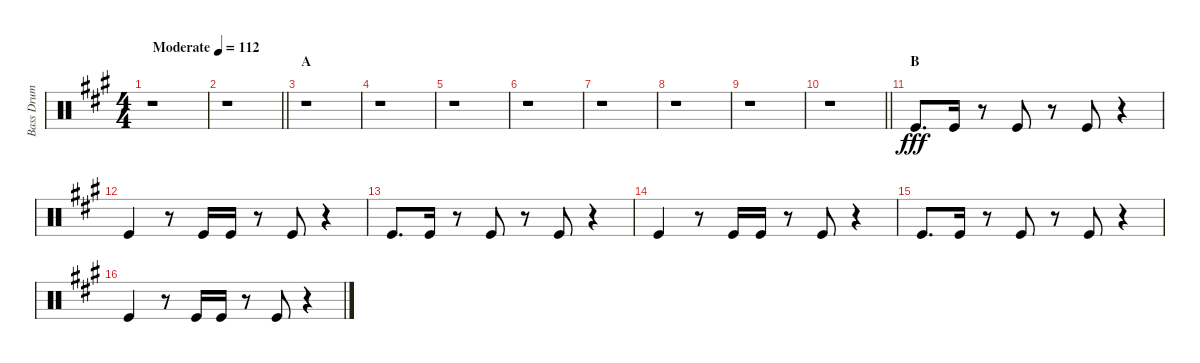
\track ("Bass Drum" "Bass Drum") {instrument percussion}
\staff {score}
\articulation defaults
\ts (4 4)
\tempo (112 "Moderate")
\clef neutral
\ks a
r.1{dy fff} |
\barLineRight lightlight
r.1 |
\section ("" "A")
r.1 |
r.1 |
r.1 |
r.1 |
r.1 |
r.1 |
r.1 |
\barLineRight lightlight
r.1 |
\section ("" "B")
"Kick (hit)".8{d} "Kick (hit)".16 r.8 "Kick (hit)".8 r.8 "Kick (hit)".8 r.4 |
"Kick (hit)".4 r.8 "Kick (hit)".16 "Kick (hit)".16 r.8 "Kick (hit)".8 r.4 |
"Kick (hit)".8{d} "Kick (hit)".16 r.8 "Kick (hit)".8 r.8 "Kick (hit)".8 r.4 |
"Kick (hit)".4 r.8 "Kick (hit)".16 "Kick (hit)".16 r.8 "Kick (hit)".8 r.4 |
"Kick (hit)".8{d} "Kick (hit)".16 r.8 "Kick (hit)".8 r.8 "Kick (hit)".8 r.4 |
"Kick (hit)".4 r.8 "Kick (hit)".16 "Kick (hit)".16 r.8 "Kick (hit)".8 r.4
